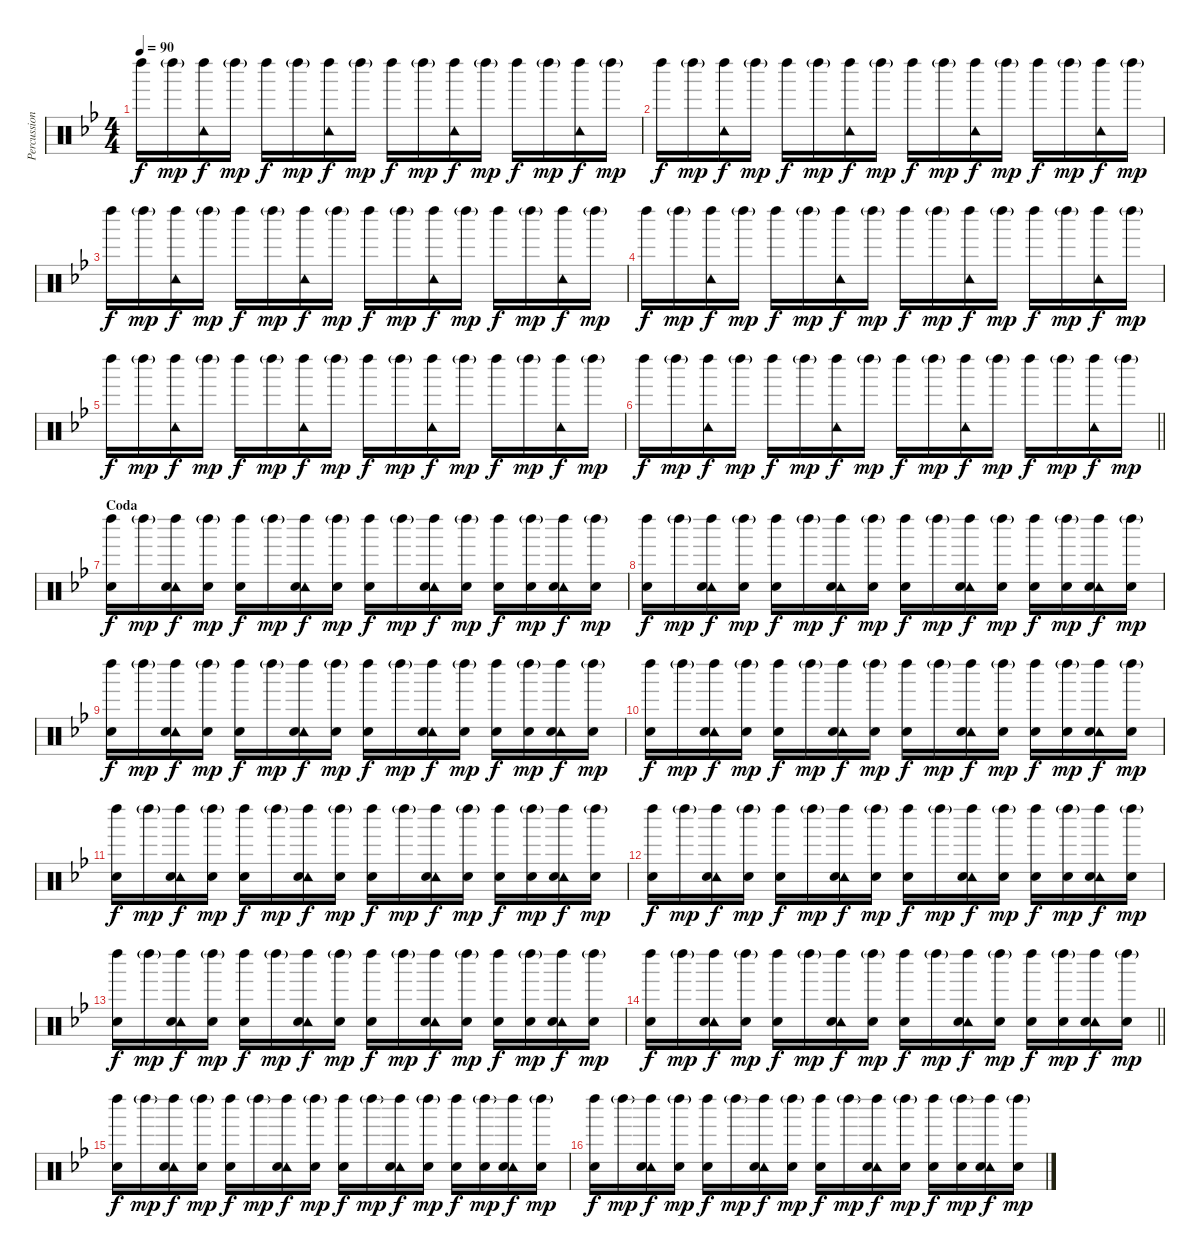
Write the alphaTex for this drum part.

\track ("Percussion" "Percussion") {instrument percussion}
\staff {score}
\articulation defaults
\ts (4 4)
\tempo 90
\clef neutral
\ks bb "Left Maraca (hit)".16{dy f} "Left Maraca (hit)"{g}.16{dy mp}
("Left Maraca (hit)" "Tambourine (hit)").16{dy f} "Left Maraca (hit)"{g}.16{dy mp} "Left Maraca (hit)".16{dy f} "Left Maraca (hit)"{g}.16{dy mp} ("Left Maraca (hit)" "Tambourine (hit)").16{dy f} "Left Maraca (hit)"{g}.16{dy mp} "Left Maraca (hit)".16{dy f} "Left Maraca (hit)"{g}.16{dy mp} ("Left Maraca (hit)" "Tambourine (hit)").16{dy f} "Left Maraca (hit)"{g}.16{dy mp} "Left Maraca (hit)".16{dy f} "Left Maraca (hit)"{g}.16{dy mp} ("Left Maraca (hit)" "Tambourine (hit)").16{dy f} "Left Maraca (hit)"{g}.16{dy mp} |
"Left Maraca (hit)".16{dy f} "Left Maraca (hit)"{g}.16{dy mp} ("Left Maraca (hit)" "Tambourine (hit)").16{dy f} "Left Maraca (hit)"{g}.16{dy mp} "Left Maraca (hit)".16{dy f} "Left Maraca (hit)"{g}.16{dy mp} ("Left Maraca (hit)" "Tambourine (hit)").16{dy f} "Left Maraca (hit)"{g}.16{dy mp} "Left Maraca (hit)".16{dy f} "Left Maraca (hit)"{g}.16{dy mp} ("Left Maraca (hit)" "Tambourine (hit)").16{dy f} "Left Maraca (hit)"{g}.16{dy mp} "Left Maraca (hit)".16{dy f} "Left Maraca (hit)"{g}.16{dy mp} ("Left Maraca (hit)" "Tambourine (hit)").16{dy f} "Left Maraca (hit)"{g}.16{dy mp} |
"Left Maraca (hit)".16{dy f} "Left Maraca (hit)"{g}.16{dy mp} ("Left Maraca (hit)" "Tambourine (hit)").16{dy f} "Left Maraca (hit)"{g}.16{dy mp} "Left Maraca (hit)".16{dy f} "Left Maraca (hit)"{g}.16{dy mp} ("Left Maraca (hit)" "Tambourine (hit)").16{dy f} "Left Maraca (hit)"{g}.16{dy mp} "Left Maraca (hit)".16{dy f} "Left Maraca (hit)"{g}.16{dy mp} ("Left Maraca (hit)" "Tambourine (hit)").16{dy f} "Left Maraca (hit)"{g}.16{dy mp} "Left Maraca (hit)".16{dy f} "Left Maraca (hit)"{g}.16{dy mp} ("Left Maraca (hit)" "Tambourine (hit)").16{dy f} "Left Maraca (hit)"{g}.16{dy mp} |
"Left Maraca (hit)".16{dy f} "Left Maraca (hit)"{g}.16{dy mp} ("Left Maraca (hit)" "Tambourine (hit)").16{dy f} "Left Maraca (hit)"{g}.16{dy mp} "Left Maraca (hit)".16{dy f} "Left Maraca (hit)"{g}.16{dy mp} ("Left Maraca (hit)" "Tambourine (hit)").16{dy f} "Left Maraca (hit)"{g}.16{dy mp} "Left Maraca (hit)".16{dy f} "Left Maraca (hit)"{g}.16{dy mp} ("Left Maraca (hit)" "Tambourine (hit)").16{dy f} "Left Maraca (hit)"{g}.16{dy mp} "Left Maraca (hit)".16{dy f} "Left Maraca (hit)"{g}.16{dy mp} ("Left Maraca (hit)" "Tambourine (hit)").16{dy f} "Left Maraca (hit)"{g}.16{dy mp} |
"Left Maraca (hit)".16{dy f} "Left Maraca (hit)"{g}.16{dy mp} ("Left Maraca (hit)" "Tambourine (hit)").16{dy f} "Left Maraca (hit)"{g}.16{dy mp} "Left Maraca (hit)".16{dy f} "Left Maraca (hit)"{g}.16{dy mp} ("Left Maraca (hit)" "Tambourine (hit)").16{dy f} "Left Maraca (hit)"{g}.16{dy mp} "Left Maraca (hit)".16{dy f} "Left Maraca (hit)"{g}.16{dy mp} ("Left Maraca (hit)" "Tambourine (hit)").16{dy f} "Left Maraca (hit)"{g}.16{dy mp} "Left Maraca (hit)".16{dy f} "Left Maraca (hit)"{g}.16{dy mp} ("Left Maraca (hit)" "Tambourine (hit)").16{dy f} "Left Maraca (hit)"{g}.16{dy mp} |
\barLineRight lightlight "Left Maraca (hit)".16{dy f} "Left Maraca (hit)"{g}.16{dy mp}
("Left Maraca (hit)" "Tambourine (hit)").16{dy f} "Left Maraca (hit)"{g}.16{dy mp} "Left Maraca (hit)".16{dy f} "Left Maraca (hit)"{g}.16{dy mp} ("Left Maraca (hit)" "Tambourine (hit)").16{dy f} "Left Maraca (hit)"{g}.16{dy mp} "Left Maraca (hit)".16{dy f} "Left Maraca (hit)"{g}.16{dy mp} ("Left Maraca (hit)" "Tambourine (hit)").16{dy f} "Left Maraca (hit)"{g}.16{dy mp} "Left Maraca (hit)".16{dy f} "Left Maraca (hit)"{g}.16{dy mp} ("Left Maraca (hit)" "Tambourine (hit)").16{dy f} "Left Maraca (hit)"{g}.16{dy mp} |
\section ("" "Coda")
("Left Maraca (hit)" "Snare (hit) 2").16{dy f} "Left Maraca (hit)"{g}.16{dy mp} ("Left Maraca (hit)" "Tambourine (hit)" "Snare (hit) 2").16{dy f} ("Left Maraca (hit)"{g} "Snare (hit) 2").16{dy mp} ("Left Maraca (hit)" "Snare (hit) 2").16{dy f} "Left Maraca (hit)"{g}.16{dy mp} ("Left Maraca (hit)" "Tambourine (hit)" "Snare (hit) 2").16{dy f} ("Left Maraca (hit)"{g} "Snare (hit) 2").16{dy mp} ("Left Maraca (hit)" "Snare (hit) 2").16{dy f} "Left Maraca (hit)"{g}.16{dy mp} ("Left Maraca (hit)" "Tambourine (hit)" "Snare (hit) 2").16{dy f} ("Left Maraca (hit)"{g} "Snare (hit) 2").16{dy mp} ("Left Maraca (hit)" "Snare (hit) 2").16{dy f} ("Left Maraca (hit)"{g} "Snare (hit) 2").16{dy mp} ("Left Maraca (hit)" "Tambourine (hit)" "Snare (hit) 2").16{dy f} ("Left Maraca (hit)"{g} "Snare (hit) 2").16{dy mp} |
("Left Maraca (hit)" "Snare (hit) 2").16{dy f} "Left Maraca (hit)"{g}.16{dy mp} ("Left Maraca (hit)" "Tambourine (hit)" "Snare (hit) 2").16{dy f} ("Left Maraca (hit)"{g} "Snare (hit) 2").16{dy mp} ("Left Maraca (hit)" "Snare (hit) 2").16{dy f} "Left Maraca (hit)"{g}.16{dy mp} ("Left Maraca (hit)" "Tambourine (hit)" "Snare (hit) 2").16{dy f} ("Left Maraca (hit)"{g} "Snare (hit) 2").16{dy mp} ("Left Maraca (hit)" "Snare (hit) 2").16{dy f} "Left Maraca (hit)"{g}.16{dy mp} ("Left Maraca (hit)" "Tambourine (hit)" "Snare (hit) 2").16{dy f} ("Left Maraca (hit)"{g} "Snare (hit) 2").16{dy mp} ("Left Maraca (hit)" "Snare (hit) 2").16{dy f} ("Left Maraca (hit)"{g} "Snare (hit) 2").16{dy mp} ("Left Maraca (hit)" "Tambourine (hit)" "Snare (hit) 2").16{dy f} ("Left Maraca (hit)"{g} "Snare (hit) 2").16{dy mp} |
("Left Maraca (hit)" "Snare (hit) 2").16{dy f} "Left Maraca (hit)"{g}.16{dy mp} ("Left Maraca (hit)" "Tambourine (hit)" "Snare (hit) 2").16{dy f} ("Left Maraca (hit)"{g} "Snare (hit) 2").16{dy mp} ("Left Maraca (hit)" "Snare (hit) 2").16{dy f} "Left Maraca (hit)"{g}.16{dy mp} ("Left Maraca (hit)" "Tambourine (hit)" "Snare (hit) 2").16{dy f} ("Left Maraca (hit)"{g} "Snare (hit) 2").16{dy mp} ("Left Maraca (hit)" "Snare (hit) 2").16{dy f} "Left Maraca (hit)"{g}.16{dy mp} ("Left Maraca (hit)" "Tambourine (hit)" "Snare (hit) 2").16{dy f} ("Left Maraca (hit)"{g} "Snare (hit) 2").16{dy mp} ("Left Maraca (hit)" "Snare (hit) 2").16{dy f} ("Left Maraca (hit)"{g} "Snare (hit) 2").16{dy mp} ("Left Maraca (hit)" "Tambourine (hit)" "Snare (hit) 2").16{dy f} ("Left Maraca (hit)"{g} "Snare (hit) 2").16{dy mp} |
("Left Maraca (hit)" "Snare (hit) 2").16{dy f} "Left Maraca (hit)"{g}.16{dy mp} ("Left Maraca (hit)" "Tambourine (hit)" "Snare (hit) 2").16{dy f} ("Left Maraca (hit)"{g} "Snare (hit) 2").16{dy mp} ("Left Maraca (hit)" "Snare (hit) 2").16{dy f} "Left Maraca (hit)"{g}.16{dy mp} ("Left Maraca (hit)" "Tambourine (hit)" "Snare (hit) 2").16{dy f} ("Left Maraca (hit)"{g} "Snare (hit) 2").16{dy mp} ("Left Maraca (hit)" "Snare (hit) 2").16{dy f} "Left Maraca (hit)"{g}.16{dy mp} ("Left Maraca (hit)" "Tambourine (hit)" "Snare (hit) 2").16{dy f} ("Left Maraca (hit)"{g} "Snare (hit) 2").16{dy mp} ("Left Maraca (hit)" "Snare (hit) 2").16{dy f} ("Left Maraca (hit)"{g} "Snare (hit) 2").16{dy mp} ("Left Maraca (hit)" "Tambourine (hit)" "Snare (hit) 2").16{dy f} ("Left Maraca (hit)"{g} "Snare (hit) 2").16{dy mp} |
("Left Maraca (hit)" "Snare (hit) 2").16{dy f} "Left Maraca (hit)"{g}.16{dy mp} ("Left Maraca (hit)" "Tambourine (hit)" "Snare (hit) 2").16{dy f} ("Left Maraca (hit)"{g} "Snare (hit) 2").16{dy mp} ("Left Maraca (hit)" "Snare (hit) 2").16{dy f} "Left Maraca (hit)"{g}.16{dy mp} ("Left Maraca (hit)" "Tambourine (hit)" "Snare (hit) 2").16{dy f} ("Left Maraca (hit)"{g} "Snare (hit) 2").16{dy mp} ("Left Maraca (hit)" "Snare (hit) 2").16{dy f} "Left Maraca (hit)"{g}.16{dy mp} ("Left Maraca (hit)" "Tambourine (hit)" "Snare (hit) 2").16{dy f} ("Left Maraca (hit)"{g} "Snare (hit) 2").16{dy mp} ("Left Maraca (hit)" "Snare (hit) 2").16{dy f} ("Left Maraca (hit)"{g} "Snare (hit) 2").16{dy mp} ("Left Maraca (hit)" "Tambourine (hit)" "Snare (hit) 2").16{dy f} ("Left Maraca (hit)"{g} "Snare (hit) 2").16{dy mp} |
("Left Maraca (hit)" "Snare (hit) 2").16{dy f} "Left Maraca (hit)"{g}.16{dy mp} ("Left Maraca (hit)" "Tambourine (hit)" "Snare (hit) 2").16{dy f} ("Left Maraca (hit)"{g} "Snare (hit) 2").16{dy mp} ("Left Maraca (hit)" "Snare (hit) 2").16{dy f} "Left Maraca (hit)"{g}.16{dy mp} ("Left Maraca (hit)" "Tambourine (hit)" "Snare (hit) 2").16{dy f} ("Left Maraca (hit)"{g} "Snare (hit) 2").16{dy mp} ("Left Maraca (hit)" "Snare (hit) 2").16{dy f} "Left Maraca (hit)"{g}.16{dy mp} ("Left Maraca (hit)" "Tambourine (hit)" "Snare (hit) 2").16{dy f} ("Left Maraca (hit)"{g} "Snare (hit) 2").16{dy mp} ("Left Maraca (hit)" "Snare (hit) 2").16{dy f} ("Left Maraca (hit)"{g} "Snare (hit) 2").16{dy mp} ("Left Maraca (hit)" "Tambourine (hit)" "Snare (hit) 2").16{dy f} ("Left Maraca (hit)"{g} "Snare (hit) 2").16{dy mp} |
("Left Maraca (hit)" "Snare (hit) 2").16{dy f} "Left Maraca (hit)"{g}.16{dy mp} ("Left Maraca (hit)" "Tambourine (hit)" "Snare (hit) 2").16{dy f} ("Left Maraca (hit)"{g} "Snare (hit) 2").16{dy mp} ("Left Maraca (hit)" "Snare (hit) 2").16{dy f} "Left Maraca (hit)"{g}.16{dy mp} ("Left Maraca (hit)" "Tambourine (hit)" "Snare (hit) 2").16{dy f} ("Left Maraca (hit)"{g} "Snare (hit) 2").16{dy mp} ("Left Maraca (hit)" "Snare (hit) 2").16{dy f} "Left Maraca (hit)"{g}.16{dy mp} ("Left Maraca (hit)" "Tambourine (hit)" "Snare (hit) 2").16{dy f} ("Left Maraca (hit)"{g} "Snare (hit) 2").16{dy mp} ("Left Maraca (hit)" "Snare (hit) 2").16{dy f} ("Left Maraca (hit)"{g} "Snare (hit) 2").16{dy mp} ("Left Maraca (hit)" "Tambourine (hit)" "Snare (hit) 2").16{dy f} ("Left Maraca (hit)"{g} "Snare (hit) 2").16{dy mp} |
\barLineRight lightlight
("Left Maraca (hit)" "Snare (hit) 2").16{dy f} "Left Maraca (hit)"{g}.16{dy mp} ("Left Maraca (hit)" "Tambourine (hit)" "Snare (hit) 2").16{dy f} ("Left Maraca (hit)"{g} "Snare (hit) 2").16{dy mp} ("Left Maraca (hit)" "Snare (hit) 2").16{dy f} "Left Maraca (hit)"{g}.16{dy mp} ("Left Maraca (hit)" "Tambourine (hit)" "Snare (hit) 2").16{dy f} ("Left Maraca (hit)"{g} "Snare (hit) 2").16{dy mp} ("Left Maraca (hit)" "Snare (hit) 2").16{dy f} "Left Maraca (hit)"{g}.16{dy mp} ("Left Maraca (hit)" "Tambourine (hit)" "Snare (hit) 2").16{dy f} ("Left Maraca (hit)"{g} "Snare (hit) 2").16{dy mp} ("Left Maraca (hit)" "Snare (hit) 2").16{dy f} ("Left Maraca (hit)"{g} "Snare (hit) 2").16{dy mp} ("Left Maraca (hit)" "Tambourine (hit)" "Snare (hit) 2").16{dy f} ("Left Maraca (hit)"{g} "Snare (hit) 2").16{dy mp} |
("Left Maraca (hit)" "Snare (hit) 2").16{dy f} "Left Maraca (hit)"{g}.16{dy mp} ("Left Maraca (hit)" "Tambourine (hit)" "Snare (hit) 2").16{dy f} ("Left Maraca (hit)"{g} "Snare (hit) 2").16{dy mp} ("Left Maraca (hit)" "Snare (hit) 2").16{dy f} "Left Maraca (hit)"{g}.16{dy mp} ("Left Maraca (hit)" "Tambourine (hit)" "Snare (hit) 2").16{dy f} ("Left Maraca (hit)"{g} "Snare (hit) 2").16{dy mp} ("Left Maraca (hit)" "Snare (hit) 2").16{dy f} "Left Maraca (hit)"{g}.16{dy mp} ("Left Maraca (hit)" "Tambourine (hit)" "Snare (hit) 2").16{dy f} ("Left Maraca (hit)"{g} "Snare (hit) 2").16{dy mp} ("Left Maraca (hit)" "Snare (hit) 2").16{dy f} ("Left Maraca (hit)"{g} "Snare (hit) 2").16{dy mp} ("Left Maraca (hit)" "Tambourine (hit)" "Snare (hit) 2").16{dy f} ("Left Maraca (hit)"{g} "Snare (hit) 2").16{dy mp} |
("Left Maraca (hit)" "Snare (hit) 2").16{dy f} "Left Maraca (hit)"{g}.16{dy mp} ("Left Maraca (hit)" "Tambourine (hit)" "Snare (hit) 2").16{dy f} ("Left Maraca (hit)"{g} "Snare (hit) 2").16{dy mp} ("Left Maraca (hit)" "Snare (hit) 2").16{dy f} "Left Maraca (hit)"{g}.16{dy mp} ("Left Maraca (hit)" "Tambourine (hit)" "Snare (hit) 2").16{dy f} ("Left Maraca (hit)"{g} "Snare (hit) 2").16{dy mp} ("Left Maraca (hit)" "Snare (hit) 2").16{dy f} "Left Maraca (hit)"{g}.16{dy mp} ("Left Maraca (hit)" "Tambourine (hit)" "Snare (hit) 2").16{dy f} ("Left Maraca (hit)"{g} "Snare (hit) 2").16{dy mp} ("Left Maraca (hit)" "Snare (hit) 2").16{dy f} ("Left Maraca (hit)"{g} "Snare (hit) 2").16{dy mp} ("Left Maraca (hit)" "Tambourine (hit)" "Snare (hit) 2").16{dy f} ("Left Maraca (hit)"{g} "Snare (hit) 2").16{dy mp}
